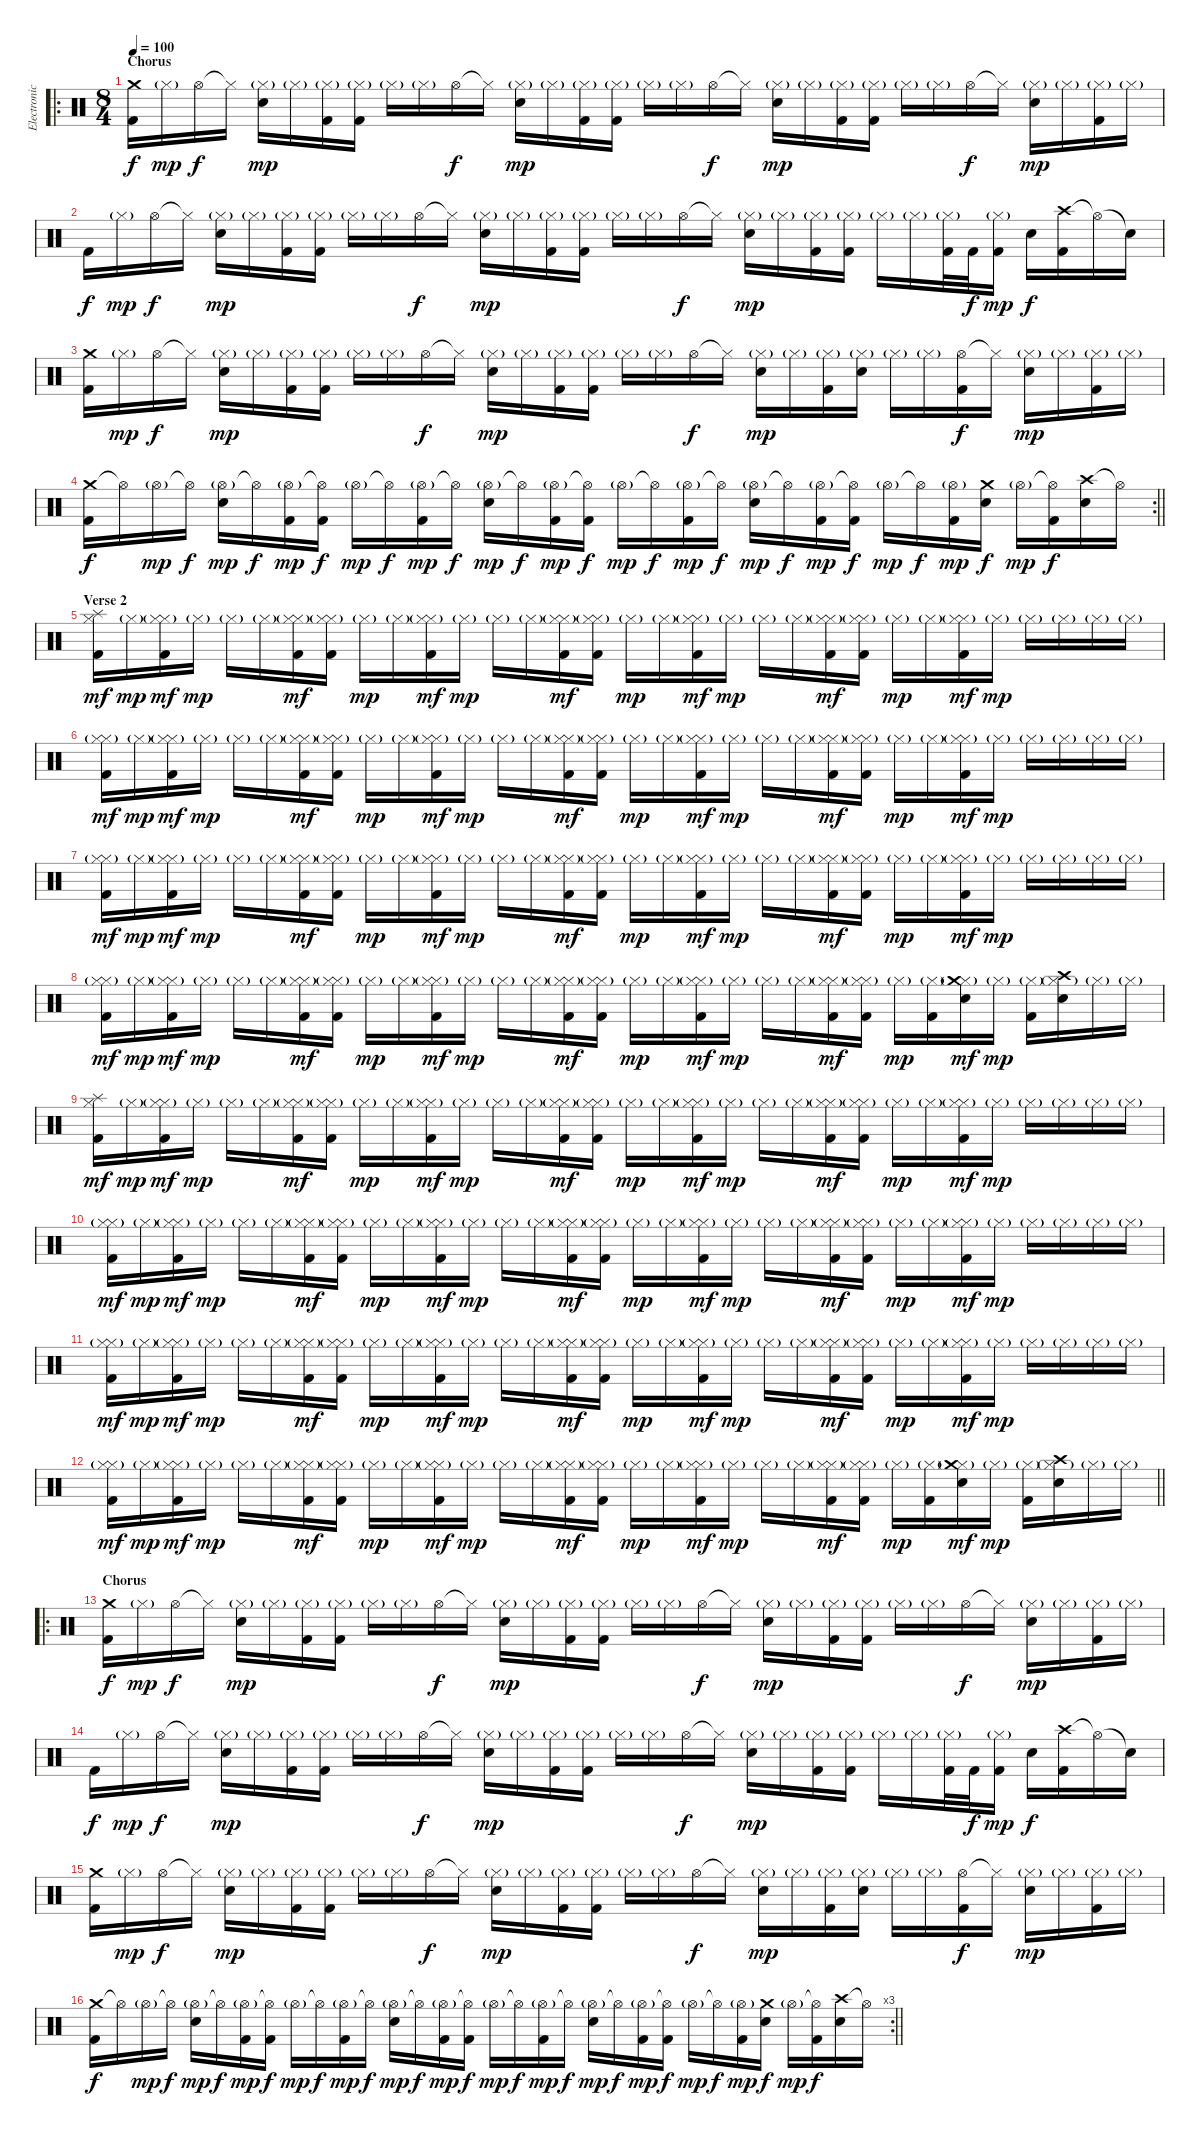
\track ("Electronic Drums" "Electronic") {instrument percussion}
\staff {score}
\articulation defaults
\ro
\ts (8 4)
\section ("" "Chorus")
\tempo 100
\clef neutral
\ks c
("Crash medium (hit)" "Kick (hit) 2").16{dy f} "Hi-Hat (closed)"{g}.16{dy mp} "Hi-Hat (open)".16{dy f} "Hi-Hat (closed)"{t}.16 ("Hi-Hat (closed)"{g} "Snare (hit) 2").16{dy mp} "Hi-Hat (closed)"{g}.16 ("Hi-Hat (closed)"{g} "Kick (hit) 2").16 ("Hi-Hat (closed)"{g} "Kick (hit) 2").16 "Hi-Hat (closed)"{g}.16 "Hi-Hat (closed)"{g}.16 "Hi-Hat (open)".16{dy f} "Hi-Hat (closed)"{t}.16 ("Hi-Hat (closed)"{g} "Snare (hit) 2").16{dy mp} "Hi-Hat (closed)"{g}.16 ("Hi-Hat (closed)"{g} "Kick (hit) 2").16 ("Hi-Hat (closed)"{g} "Kick (hit) 2").16 "Hi-Hat (closed)"{g}.16 "Hi-Hat (closed)"{g}.16 "Hi-Hat (open)".16{dy f} "Hi-Hat (closed)"{t}.16 ("Hi-Hat (closed)"{g} "Snare (hit) 2").16{dy mp} "Hi-Hat (closed)"{g}.16 ("Hi-Hat (closed)"{g} "Kick (hit) 2").16 ("Hi-Hat (closed)"{g} "Kick (hit) 2").16 "Hi-Hat (closed)"{g}.16 "Hi-Hat (closed)"{g}.16 "Hi-Hat (open)".16{dy f} "Hi-Hat (closed)"{t}.16 ("Hi-Hat (closed)"{g} "Snare (hit) 2").16{dy mp} "Hi-Hat (closed)"{g}.16 ("Hi-Hat (closed)"{g} "Kick (hit) 2").16 "Hi-Hat (closed)"{g}.16 |
"Kick (hit) 2".16{dy f} "Hi-Hat (closed)"{g}.16{dy mp} "Hi-Hat (open)".16{dy f} "Hi-Hat (closed)"{t}.16 ("Hi-Hat (closed)"{g} "Snare (hit) 2").16{dy mp} "Hi-Hat (closed)"{g}.16 ("Hi-Hat (closed)"{g} "Kick (hit) 2").16 ("Hi-Hat (closed)"{g} "Kick (hit) 2").16 "Hi-Hat (closed)"{g}.16 "Hi-Hat (closed)"{g}.16 "Hi-Hat (open)".16{dy f} "Hi-Hat (closed)"{t}.16 ("Hi-Hat (closed)"{g} "Snare (hit) 2").16{dy mp} "Hi-Hat (closed)"{g}.16 ("Hi-Hat (closed)"{g} "Kick (hit) 2").16 ("Hi-Hat (closed)"{g} "Kick (hit) 2").16 "Hi-Hat (closed)"{g}.16 "Hi-Hat (closed)"{g}.16 "Hi-Hat (open)".16{dy f} "Hi-Hat (closed)"{t}.16 ("Hi-Hat (closed)"{g} "Snare (hit) 2").16{dy mp} "Hi-Hat (closed)"{g}.16 ("Hi-Hat (closed)"{g} "Kick (hit) 2").16 ("Hi-Hat (closed)"{g} "Kick (hit) 2").16 "Hi-Hat (closed)"{g}.16 "Hi-Hat (closed)"{g}.16 ("Hi-Hat (closed)"{g} "Kick (hit) 2").32 "Kick (hit) 2".32{dy f} ("Hi-Hat (closed)"{g} "Kick (hit) 2").16{dy mp} "Snare (hit) 2".16{dy f} ("Crash high (hit)" "Kick (hit) 2").16 "Hi-Hat (open)"{t}.16 "Snare (hit)"{t}.16 |
("Crash medium (hit)" "Kick (hit) 2").16 "Hi-Hat (closed)"{g}.16{dy mp} "Hi-Hat (open)".16{dy f} "Hi-Hat (closed)"{t}.16 ("Hi-Hat (closed)"{g} "Snare (hit) 2").16{dy mp} "Hi-Hat (closed)"{g}.16 ("Hi-Hat (closed)"{g} "Kick (hit) 2").16 ("Hi-Hat (closed)"{g} "Kick (hit) 2").16 "Hi-Hat (closed)"{g}.16 "Hi-Hat (closed)"{g}.16 "Hi-Hat (open)".16{dy f} "Hi-Hat (closed)"{t}.16 ("Hi-Hat (closed)"{g} "Snare (hit) 2").16{dy mp} "Hi-Hat (closed)"{g}.16 ("Hi-Hat (closed)"{g} "Kick (hit) 2").16 ("Hi-Hat (closed)"{g} "Kick (hit) 2").16 "Hi-Hat (closed)"{g}.16 "Hi-Hat (closed)"{g}.16 "Hi-Hat (open)".16{dy f} "Hi-Hat (closed)"{t}.16 ("Hi-Hat (closed)"{g} "Snare (hit) 2").16{dy mp} "Hi-Hat (closed)"{g}.16 ("Hi-Hat (closed)"{g} "Kick (hit) 2").16 ("Hi-Hat (closed)"{g} "Snare (hit) 2").16 "Hi-Hat (closed)"{g}.16 "Hi-Hat (closed)"{g}.16 ("Hi-Hat (open)" "Kick (hit) 2").16{dy f} "Hi-Hat (closed)"{t}.16 ("Hi-Hat (closed)"{g} "Snare (hit) 2").16{dy mp} "Hi-Hat (closed)"{g}.16 ("Hi-Hat (closed)"{g} "Kick (hit) 2").16 "Hi-Hat (closed)"{g}.16 |
\rc 2
\barLineRight lightlight
("Crash medium (hit)" "Kick (hit) 2").16{dy f} "Hi-Hat (open)"{t}.16 "Hi-Hat (open)"{g}.16{dy mp} "Hi-Hat (open)"{t}.16{dy f} ("Hi-Hat (open)"{g} "Snare (hit) 2").16{dy mp} "Hi-Hat (open)"{t}.16{dy f} ("Hi-Hat (open)"{g} "Kick (hit) 2").16{dy mp} ("Hi-Hat (open)"{t} "Kick (hit) 2").16{dy f} "Hi-Hat (open)"{g}.16{dy mp} "Hi-Hat (open)"{t}.16{dy f} ("Hi-Hat (open)"{g} "Kick (hit) 2").16{dy mp} "Hi-Hat (open)"{t}.16{dy f} ("Hi-Hat (open)"{g} "Snare (hit) 2").16{dy mp} "Hi-Hat (open)"{t}.16{dy f} ("Hi-Hat (open)"{g} "Kick (hit) 2").16{dy mp} ("Hi-Hat (open)"{t} "Kick (hit) 2").16{dy f} "Hi-Hat (open)"{g}.16{dy mp} "Hi-Hat (open)"{t}.16{dy f} ("Hi-Hat (open)"{g} "Kick (hit) 2").16{dy mp} "Hi-Hat (open)"{t}.16{dy f} ("Hi-Hat (open)"{g} "Snare (hit) 2").16{dy mp} "Hi-Hat (open)"{t}.16{dy f} ("Hi-Hat (open)"{g} "Kick (hit) 2").16{dy mp} ("Hi-Hat (open)"{t} "Kick (hit) 2").16{dy f} "Hi-Hat (open)"{g}.16{dy mp} "Hi-Hat (open)"{t}.16{dy f} ("Hi-Hat (open)"{g} "Kick (hit) 2").16{dy mp} ("Crash medium (hit)" "Snare (hit) 2").16{dy f} "Hi-Hat (open)"{g}.16{dy mp} ("Hi-Hat (open)"{t} "Kick (hit) 2").16{dy f} ("Crash high (hit)" "Snare (hit) 2").16 "Hi-Hat (open)"{t}.16 |
\section ("" "Verse 2")
("Splash (hit)" "Hi-Hat (closed)" "Kick (hit) 2").16{dy mf} "Hi-Hat (closed)"{g}.16{dy mp} ("Hi-Hat (closed)"{g} "Hi-Hat (closed)" "Kick (hit) 2").16{dy mf} "Hi-Hat (closed)"{g}.16{dy mp} "Hi-Hat (closed)"{g}.16 "Hi-Hat (closed)"{g}.16 ("Hi-Hat (closed)"{g} "Hi-Hat (closed)" "Kick (hit) 2").16{dy mf} ("Hi-Hat (closed)"{g} "Hi-Hat (closed)" "Kick (hit) 2").16 "Hi-Hat (closed)"{g}.16{dy mp} "Hi-Hat (closed)"{g}.16 ("Hi-Hat (closed)"{g} "Hi-Hat (closed)" "Kick (hit) 2").16{dy mf} "Hi-Hat (closed)"{g}.16{dy mp} "Hi-Hat (closed)"{g}.16 "Hi-Hat (closed)"{g}.16 ("Hi-Hat (closed)"{g} "Hi-Hat (closed)" "Kick (hit) 2").16{dy mf} ("Hi-Hat (closed)"{g} "Hi-Hat (closed)" "Kick (hit) 2").16 "Hi-Hat (closed)"{g}.16{dy mp} "Hi-Hat (closed)"{g}.16 ("Hi-Hat (closed)"{g} "Hi-Hat (closed)" "Kick (hit) 2").16{dy mf} "Hi-Hat (closed)"{g}.16{dy mp} "Hi-Hat (closed)"{g}.16 "Hi-Hat (closed)"{g}.16 ("Hi-Hat (closed)"{g} "Hi-Hat (closed)" "Kick (hit) 2").16{dy mf} ("Hi-Hat (closed)"{g} "Hi-Hat (closed)" "Kick (hit) 2").16 "Hi-Hat (closed)"{g}.16{dy mp} "Hi-Hat (closed)"{g}.16 ("Hi-Hat (closed)"{g} "Hi-Hat (closed)" "Kick (hit) 2").16{dy mf} "Hi-Hat (closed)"{g}.16{dy mp} "Hi-Hat (closed)"{g}.16 "Hi-Hat (closed)"{g}.16 "Hi-Hat (closed)"{g}.16 "Hi-Hat (closed)"{g}.16 |
("Hi-Hat (closed)"{g} "Hi-Hat (closed)" "Kick (hit) 2").16{dy mf} "Hi-Hat (closed)"{g}.16{dy mp} ("Hi-Hat (closed)"{g} "Hi-Hat (closed)" "Kick (hit) 2").16{dy mf} "Hi-Hat (closed)"{g}.16{dy mp} "Hi-Hat (closed)"{g}.16 "Hi-Hat (closed)"{g}.16 ("Hi-Hat (closed)"{g} "Hi-Hat (closed)" "Kick (hit) 2").16{dy mf} ("Hi-Hat (closed)"{g} "Hi-Hat (closed)" "Kick (hit) 2").16 "Hi-Hat (closed)"{g}.16{dy mp} "Hi-Hat (closed)"{g}.16 ("Hi-Hat (closed)"{g} "Hi-Hat (closed)" "Kick (hit) 2").16{dy mf} "Hi-Hat (closed)"{g}.16{dy mp} "Hi-Hat (closed)"{g}.16 "Hi-Hat (closed)"{g}.16 ("Hi-Hat (closed)"{g} "Hi-Hat (closed)" "Kick (hit) 2").16{dy mf} ("Hi-Hat (closed)"{g} "Hi-Hat (closed)" "Kick (hit) 2").16 "Hi-Hat (closed)"{g}.16{dy mp} "Hi-Hat (closed)"{g}.16 ("Hi-Hat (closed)"{g} "Hi-Hat (closed)" "Kick (hit) 2").16{dy mf} "Hi-Hat (closed)"{g}.16{dy mp} "Hi-Hat (closed)"{g}.16 "Hi-Hat (closed)"{g}.16 ("Hi-Hat (closed)"{g} "Hi-Hat (closed)" "Kick (hit) 2").16{dy mf} ("Hi-Hat (closed)"{g} "Hi-Hat (closed)" "Kick (hit) 2").16 "Hi-Hat (closed)"{g}.16{dy mp} "Hi-Hat (closed)"{g}.16 ("Hi-Hat (closed)"{g} "Hi-Hat (closed)" "Kick (hit) 2").16{dy mf} "Hi-Hat (closed)"{g}.16{dy mp} "Hi-Hat (closed)"{g}.16 "Hi-Hat (closed)"{g}.16 "Hi-Hat (closed)"{g}.16 "Hi-Hat (closed)"{g}.16 |
("Hi-Hat (closed)"{g} "Hi-Hat (closed)" "Kick (hit) 2").16{dy mf} "Hi-Hat (closed)"{g}.16{dy mp} ("Hi-Hat (closed)"{g} "Hi-Hat (closed)" "Kick (hit) 2").16{dy mf} "Hi-Hat (closed)"{g}.16{dy mp} "Hi-Hat (closed)"{g}.16 "Hi-Hat (closed)"{g}.16 ("Hi-Hat (closed)"{g} "Hi-Hat (closed)" "Kick (hit) 2").16{dy mf} ("Hi-Hat (closed)"{g} "Hi-Hat (closed)" "Kick (hit) 2").16 "Hi-Hat (closed)"{g}.16{dy mp} "Hi-Hat (closed)"{g}.16 ("Hi-Hat (closed)"{g} "Hi-Hat (closed)" "Kick (hit) 2").16{dy mf} "Hi-Hat (closed)"{g}.16{dy mp} "Hi-Hat (closed)"{g}.16 "Hi-Hat (closed)"{g}.16 ("Hi-Hat (closed)"{g} "Hi-Hat (closed)" "Kick (hit) 2").16{dy mf} ("Hi-Hat (closed)"{g} "Hi-Hat (closed)" "Kick (hit) 2").16 "Hi-Hat (closed)"{g}.16{dy mp} "Hi-Hat (closed)"{g}.16 ("Hi-Hat (closed)"{g} "Hi-Hat (closed)" "Kick (hit) 2").16{dy mf} "Hi-Hat (closed)"{g}.16{dy mp} "Hi-Hat (closed)"{g}.16 "Hi-Hat (closed)"{g}.16 ("Hi-Hat (closed)"{g} "Hi-Hat (closed)" "Kick (hit) 2").16{dy mf} ("Hi-Hat (closed)"{g} "Hi-Hat (closed)" "Kick (hit) 2").16 "Hi-Hat (closed)"{g}.16{dy mp} "Hi-Hat (closed)"{g}.16 ("Hi-Hat (closed)"{g} "Hi-Hat (closed)" "Kick (hit) 2").16{dy mf} "Hi-Hat (closed)"{g}.16{dy mp} "Hi-Hat (closed)"{g}.16 "Hi-Hat (closed)"{g}.16 "Hi-Hat (closed)"{g}.16 "Hi-Hat (closed)"{g}.16 |
("Hi-Hat (closed)"{g} "Hi-Hat (closed)" "Kick (hit) 2").16{dy mf} "Hi-Hat (closed)"{g}.16{dy mp} ("Hi-Hat (closed)"{g} "Hi-Hat (closed)" "Kick (hit) 2").16{dy mf} "Hi-Hat (closed)"{g}.16{dy mp} "Hi-Hat (closed)"{g}.16 "Hi-Hat (closed)"{g}.16 ("Hi-Hat (closed)"{g} "Hi-Hat (closed)" "Kick (hit) 2").16{dy mf} ("Hi-Hat (closed)"{g} "Hi-Hat (closed)" "Kick (hit) 2").16 "Hi-Hat (closed)"{g}.16{dy mp} "Hi-Hat (closed)"{g}.16 ("Hi-Hat (closed)"{g} "Hi-Hat (closed)" "Kick (hit) 2").16{dy mf} "Hi-Hat (closed)"{g}.16{dy mp} "Hi-Hat (closed)"{g}.16 "Hi-Hat (closed)"{g}.16 ("Hi-Hat (closed)"{g} "Hi-Hat (closed)" "Kick (hit) 2").16{dy mf} ("Hi-Hat (closed)"{g} "Hi-Hat (closed)" "Kick (hit) 2").16 "Hi-Hat (closed)"{g}.16{dy mp} "Hi-Hat (closed)"{g}.16 ("Hi-Hat (closed)"{g} "Hi-Hat (closed)" "Kick (hit) 2").16{dy mf} "Hi-Hat (closed)"{g}.16{dy mp} "Hi-Hat (closed)"{g}.16 "Hi-Hat (closed)"{g}.16 ("Hi-Hat (closed)"{g} "Hi-Hat (closed)" "Kick (hit) 2").16{dy mf} ("Hi-Hat (closed)"{g} "Hi-Hat (closed)" "Kick (hit) 2").16 "Hi-Hat (closed)"{g}.16{dy mp} ("Hi-Hat (closed)"{g} "Kick (hit) 2").16 ("Hi-Hat (closed)"{g} "Snare (hit) 2" "Crash medium (hit)").16{dy mf} "Hi-Hat (closed)"{g}.16{dy mp} ("Hi-Hat (closed)"{g} "Kick (hit) 2").16 ("Hi-Hat (closed)"{g} "Snare (hit) 2" "Crash high (hit)").16 "Hi-Hat (closed)"{g}.16 "Hi-Hat (closed)"{g}.16 |
("Splash (hit)" "Hi-Hat (closed)" "Kick (hit) 2").16{dy mf} "Hi-Hat (closed)"{g}.16{dy mp} ("Hi-Hat (closed)"{g} "Hi-Hat (closed)" "Kick (hit) 2").16{dy mf} "Hi-Hat (closed)"{g}.16{dy mp} "Hi-Hat (closed)"{g}.16 "Hi-Hat (closed)"{g}.16 ("Hi-Hat (closed)"{g} "Hi-Hat (closed)" "Kick (hit) 2").16{dy mf} ("Hi-Hat (closed)"{g} "Hi-Hat (closed)" "Kick (hit) 2").16 "Hi-Hat (closed)"{g}.16{dy mp} "Hi-Hat (closed)"{g}.16 ("Hi-Hat (closed)"{g} "Hi-Hat (closed)" "Kick (hit) 2").16{dy mf} "Hi-Hat (closed)"{g}.16{dy mp} "Hi-Hat (closed)"{g}.16 "Hi-Hat (closed)"{g}.16 ("Hi-Hat (closed)"{g} "Hi-Hat (closed)" "Kick (hit) 2").16{dy mf} ("Hi-Hat (closed)"{g} "Hi-Hat (closed)" "Kick (hit) 2").16 "Hi-Hat (closed)"{g}.16{dy mp} "Hi-Hat (closed)"{g}.16 ("Hi-Hat (closed)"{g} "Hi-Hat (closed)" "Kick (hit) 2").16{dy mf} "Hi-Hat (closed)"{g}.16{dy mp} "Hi-Hat (closed)"{g}.16 "Hi-Hat (closed)"{g}.16 ("Hi-Hat (closed)"{g} "Hi-Hat (closed)" "Kick (hit) 2").16{dy mf} ("Hi-Hat (closed)"{g} "Hi-Hat (closed)" "Kick (hit) 2").16 "Hi-Hat (closed)"{g}.16{dy mp} "Hi-Hat (closed)"{g}.16 ("Hi-Hat (closed)"{g} "Hi-Hat (closed)" "Kick (hit) 2").16{dy mf} "Hi-Hat (closed)"{g}.16{dy mp} "Hi-Hat (closed)"{g}.16 "Hi-Hat (closed)"{g}.16 "Hi-Hat (closed)"{g}.16 "Hi-Hat (closed)"{g}.16 |
("Hi-Hat (closed)"{g} "Hi-Hat (closed)" "Kick (hit) 2").16{dy mf} "Hi-Hat (closed)"{g}.16{dy mp} ("Hi-Hat (closed)"{g} "Hi-Hat (closed)" "Kick (hit) 2").16{dy mf} "Hi-Hat (closed)"{g}.16{dy mp} "Hi-Hat (closed)"{g}.16 "Hi-Hat (closed)"{g}.16 ("Hi-Hat (closed)"{g} "Hi-Hat (closed)" "Kick (hit) 2").16{dy mf} ("Hi-Hat (closed)"{g} "Hi-Hat (closed)" "Kick (hit) 2").16 "Hi-Hat (closed)"{g}.16{dy mp} "Hi-Hat (closed)"{g}.16 ("Hi-Hat (closed)"{g} "Hi-Hat (closed)" "Kick (hit) 2").16{dy mf} "Hi-Hat (closed)"{g}.16{dy mp} "Hi-Hat (closed)"{g}.16 "Hi-Hat (closed)"{g}.16 ("Hi-Hat (closed)"{g} "Hi-Hat (closed)" "Kick (hit) 2").16{dy mf} ("Hi-Hat (closed)"{g} "Hi-Hat (closed)" "Kick (hit) 2").16 "Hi-Hat (closed)"{g}.16{dy mp} "Hi-Hat (closed)"{g}.16 ("Hi-Hat (closed)"{g} "Hi-Hat (closed)" "Kick (hit) 2").16{dy mf} "Hi-Hat (closed)"{g}.16{dy mp} "Hi-Hat (closed)"{g}.16 "Hi-Hat (closed)"{g}.16 ("Hi-Hat (closed)"{g} "Hi-Hat (closed)" "Kick (hit) 2").16{dy mf} ("Hi-Hat (closed)"{g} "Hi-Hat (closed)" "Kick (hit) 2").16 "Hi-Hat (closed)"{g}.16{dy mp} "Hi-Hat (closed)"{g}.16 ("Hi-Hat (closed)"{g} "Hi-Hat (closed)" "Kick (hit) 2").16{dy mf} "Hi-Hat (closed)"{g}.16{dy mp} "Hi-Hat (closed)"{g}.16 "Hi-Hat (closed)"{g}.16 "Hi-Hat (closed)"{g}.16 "Hi-Hat (closed)"{g}.16 |
("Hi-Hat (closed)"{g} "Hi-Hat (closed)" "Kick (hit) 2").16{dy mf} "Hi-Hat (closed)"{g}.16{dy mp} ("Hi-Hat (closed)"{g} "Hi-Hat (closed)" "Kick (hit) 2").16{dy mf} "Hi-Hat (closed)"{g}.16{dy mp} "Hi-Hat (closed)"{g}.16 "Hi-Hat (closed)"{g}.16 ("Hi-Hat (closed)"{g} "Hi-Hat (closed)" "Kick (hit) 2").16{dy mf} ("Hi-Hat (closed)"{g} "Hi-Hat (closed)" "Kick (hit) 2").16 "Hi-Hat (closed)"{g}.16{dy mp} "Hi-Hat (closed)"{g}.16 ("Hi-Hat (closed)"{g} "Hi-Hat (closed)" "Kick (hit) 2").16{dy mf} "Hi-Hat (closed)"{g}.16{dy mp} "Hi-Hat (closed)"{g}.16 "Hi-Hat (closed)"{g}.16 ("Hi-Hat (closed)"{g} "Hi-Hat (closed)" "Kick (hit) 2").16{dy mf} ("Hi-Hat (closed)"{g} "Hi-Hat (closed)" "Kick (hit) 2").16 "Hi-Hat (closed)"{g}.16{dy mp} "Hi-Hat (closed)"{g}.16 ("Hi-Hat (closed)"{g} "Hi-Hat (closed)" "Kick (hit) 2").16{dy mf} "Hi-Hat (closed)"{g}.16{dy mp} "Hi-Hat (closed)"{g}.16 "Hi-Hat (closed)"{g}.16 ("Hi-Hat (closed)"{g} "Hi-Hat (closed)" "Kick (hit) 2").16{dy mf} ("Hi-Hat (closed)"{g} "Hi-Hat (closed)" "Kick (hit) 2").16 "Hi-Hat (closed)"{g}.16{dy mp} "Hi-Hat (closed)"{g}.16 ("Hi-Hat (closed)"{g} "Hi-Hat (closed)" "Kick (hit) 2").16{dy mf} "Hi-Hat (closed)"{g}.16{dy mp} "Hi-Hat (closed)"{g}.16 "Hi-Hat (closed)"{g}.16 "Hi-Hat (closed)"{g}.16 "Hi-Hat (closed)"{g}.16 |
\barLineRight lightlight
("Hi-Hat (closed)"{g} "Hi-Hat (closed)" "Kick (hit) 2").16{dy mf} "Hi-Hat (closed)"{g}.16{dy mp} ("Hi-Hat (closed)"{g} "Hi-Hat (closed)" "Kick (hit) 2").16{dy mf} "Hi-Hat (closed)"{g}.16{dy mp} "Hi-Hat (closed)"{g}.16 "Hi-Hat (closed)"{g}.16 ("Hi-Hat (closed)"{g} "Hi-Hat (closed)" "Kick (hit) 2").16{dy mf} ("Hi-Hat (closed)"{g} "Hi-Hat (closed)" "Kick (hit) 2").16 "Hi-Hat (closed)"{g}.16{dy mp} "Hi-Hat (closed)"{g}.16 ("Hi-Hat (closed)"{g} "Hi-Hat (closed)" "Kick (hit) 2").16{dy mf} "Hi-Hat (closed)"{g}.16{dy mp} "Hi-Hat (closed)"{g}.16 "Hi-Hat (closed)"{g}.16 ("Hi-Hat (closed)"{g} "Hi-Hat (closed)" "Kick (hit) 2").16{dy mf} ("Hi-Hat (closed)"{g} "Hi-Hat (closed)" "Kick (hit) 2").16 "Hi-Hat (closed)"{g}.16{dy mp} "Hi-Hat (closed)"{g}.16 ("Hi-Hat (closed)"{g} "Hi-Hat (closed)" "Kick (hit) 2").16{dy mf} "Hi-Hat (closed)"{g}.16{dy mp} "Hi-Hat (closed)"{g}.16 "Hi-Hat (closed)"{g}.16 ("Hi-Hat (closed)"{g} "Hi-Hat (closed)" "Kick (hit) 2").16{dy mf} ("Hi-Hat (closed)"{g} "Hi-Hat (closed)" "Kick (hit) 2").16 "Hi-Hat (closed)"{g}.16{dy mp} ("Hi-Hat (closed)"{g} "Kick (hit) 2").16 ("Hi-Hat (closed)"{g} "Snare (hit) 2" "Crash medium (hit)").16{dy mf} "Hi-Hat (closed)"{g}.16{dy mp} ("Hi-Hat (closed)"{g} "Kick (hit) 2").16 ("Hi-Hat (closed)"{g} "Snare (hit) 2" "Crash high (hit)").16 "Hi-Hat (closed)"{g}.16 "Hi-Hat (closed)"{g}.16 |
\ro
\section ("" "Chorus")
("Crash medium (hit)" "Kick (hit) 2").16{dy f} "Hi-Hat (closed)"{g}.16{dy mp} "Hi-Hat (open)".16{dy f} "Hi-Hat (closed)"{t}.16 ("Hi-Hat (closed)"{g} "Snare (hit) 2").16{dy mp} "Hi-Hat (closed)"{g}.16 ("Hi-Hat (closed)"{g} "Kick (hit) 2").16 ("Hi-Hat (closed)"{g} "Kick (hit) 2").16 "Hi-Hat (closed)"{g}.16 "Hi-Hat (closed)"{g}.16 "Hi-Hat (open)".16{dy f} "Hi-Hat (closed)"{t}.16 ("Hi-Hat (closed)"{g} "Snare (hit) 2").16{dy mp} "Hi-Hat (closed)"{g}.16 ("Hi-Hat (closed)"{g} "Kick (hit) 2").16 ("Hi-Hat (closed)"{g} "Kick (hit) 2").16 "Hi-Hat (closed)"{g}.16 "Hi-Hat (closed)"{g}.16 "Hi-Hat (open)".16{dy f} "Hi-Hat (closed)"{t}.16 ("Hi-Hat (closed)"{g} "Snare (hit) 2").16{dy mp} "Hi-Hat (closed)"{g}.16 ("Hi-Hat (closed)"{g} "Kick (hit) 2").16 ("Hi-Hat (closed)"{g} "Kick (hit) 2").16 "Hi-Hat (closed)"{g}.16 "Hi-Hat (closed)"{g}.16 "Hi-Hat (open)".16{dy f} "Hi-Hat (closed)"{t}.16 ("Hi-Hat (closed)"{g} "Snare (hit) 2").16{dy mp} "Hi-Hat (closed)"{g}.16 ("Hi-Hat (closed)"{g} "Kick (hit) 2").16 "Hi-Hat (closed)"{g}.16 |
"Kick (hit) 2".16{dy f} "Hi-Hat (closed)"{g}.16{dy mp} "Hi-Hat (open)".16{dy f} "Hi-Hat (closed)"{t}.16 ("Hi-Hat (closed)"{g} "Snare (hit) 2").16{dy mp} "Hi-Hat (closed)"{g}.16 ("Hi-Hat (closed)"{g} "Kick (hit) 2").16 ("Hi-Hat (closed)"{g} "Kick (hit) 2").16 "Hi-Hat (closed)"{g}.16 "Hi-Hat (closed)"{g}.16 "Hi-Hat (open)".16{dy f} "Hi-Hat (closed)"{t}.16 ("Hi-Hat (closed)"{g} "Snare (hit) 2").16{dy mp} "Hi-Hat (closed)"{g}.16 ("Hi-Hat (closed)"{g} "Kick (hit) 2").16 ("Hi-Hat (closed)"{g} "Kick (hit) 2").16 "Hi-Hat (closed)"{g}.16 "Hi-Hat (closed)"{g}.16 "Hi-Hat (open)".16{dy f} "Hi-Hat (closed)"{t}.16 ("Hi-Hat (closed)"{g} "Snare (hit) 2").16{dy mp} "Hi-Hat (closed)"{g}.16 ("Hi-Hat (closed)"{g} "Kick (hit) 2").16 ("Hi-Hat (closed)"{g} "Kick (hit) 2").16 "Hi-Hat (closed)"{g}.16 "Hi-Hat (closed)"{g}.16 ("Hi-Hat (closed)"{g} "Kick (hit) 2").32 "Kick (hit) 2".32{dy f} ("Hi-Hat (closed)"{g} "Kick (hit) 2").16{dy mp} "Snare (hit) 2".16{dy f} ("Crash high (hit)" "Kick (hit) 2").16 "Hi-Hat (open)"{t}.16 "Snare (hit)"{t}.16 |
("Crash medium (hit)" "Kick (hit) 2").16 "Hi-Hat (closed)"{g}.16{dy mp} "Hi-Hat (open)".16{dy f} "Hi-Hat (closed)"{t}.16 ("Hi-Hat (closed)"{g} "Snare (hit) 2").16{dy mp} "Hi-Hat (closed)"{g}.16 ("Hi-Hat (closed)"{g} "Kick (hit) 2").16 ("Hi-Hat (closed)"{g} "Kick (hit) 2").16 "Hi-Hat (closed)"{g}.16 "Hi-Hat (closed)"{g}.16 "Hi-Hat (open)".16{dy f} "Hi-Hat (closed)"{t}.16 ("Hi-Hat (closed)"{g} "Snare (hit) 2").16{dy mp} "Hi-Hat (closed)"{g}.16 ("Hi-Hat (closed)"{g} "Kick (hit) 2").16 ("Hi-Hat (closed)"{g} "Kick (hit) 2").16 "Hi-Hat (closed)"{g}.16 "Hi-Hat (closed)"{g}.16 "Hi-Hat (open)".16{dy f} "Hi-Hat (closed)"{t}.16 ("Hi-Hat (closed)"{g} "Snare (hit) 2").16{dy mp} "Hi-Hat (closed)"{g}.16 ("Hi-Hat (closed)"{g} "Kick (hit) 2").16 ("Hi-Hat (closed)"{g} "Snare (hit) 2").16 "Hi-Hat (closed)"{g}.16 "Hi-Hat (closed)"{g}.16 ("Hi-Hat (open)" "Kick (hit) 2").16{dy f} "Hi-Hat (closed)"{t}.16 ("Hi-Hat (closed)"{g} "Snare (hit) 2").16{dy mp} "Hi-Hat (closed)"{g}.16 ("Hi-Hat (closed)"{g} "Kick (hit) 2").16 "Hi-Hat (closed)"{g}.16 |
\rc 3
\barLineRight lightlight
("Crash medium (hit)" "Kick (hit) 2").16{dy f} "Hi-Hat (open)"{t}.16 "Hi-Hat (open)"{g}.16{dy mp} "Hi-Hat (open)"{t}.16{dy f} ("Hi-Hat (open)"{g} "Snare (hit) 2").16{dy mp} "Hi-Hat (open)"{t}.16{dy f} ("Hi-Hat (open)"{g} "Kick (hit) 2").16{dy mp} ("Hi-Hat (open)"{t} "Kick (hit) 2").16{dy f} "Hi-Hat (open)"{g}.16{dy mp} "Hi-Hat (open)"{t}.16{dy f} ("Hi-Hat (open)"{g} "Kick (hit) 2").16{dy mp} "Hi-Hat (open)"{t}.16{dy f} ("Hi-Hat (open)"{g} "Snare (hit) 2").16{dy mp} "Hi-Hat (open)"{t}.16{dy f} ("Hi-Hat (open)"{g} "Kick (hit) 2").16{dy mp} ("Hi-Hat (open)"{t} "Kick (hit) 2").16{dy f} "Hi-Hat (open)"{g}.16{dy mp} "Hi-Hat (open)"{t}.16{dy f} ("Hi-Hat (open)"{g} "Kick (hit) 2").16{dy mp} "Hi-Hat (open)"{t}.16{dy f} ("Hi-Hat (open)"{g} "Snare (hit) 2").16{dy mp} "Hi-Hat (open)"{t}.16{dy f} ("Hi-Hat (open)"{g} "Kick (hit) 2").16{dy mp} ("Hi-Hat (open)"{t} "Kick (hit) 2").16{dy f} "Hi-Hat (open)"{g}.16{dy mp} "Hi-Hat (open)"{t}.16{dy f} ("Hi-Hat (open)"{g} "Kick (hit) 2").16{dy mp} ("Crash medium (hit)" "Snare (hit) 2").16{dy f} "Hi-Hat (open)"{g}.16{dy mp} ("Hi-Hat (open)"{t} "Kick (hit) 2").16{dy f} ("Crash high (hit)" "Snare (hit) 2").16 "Hi-Hat (open)"{t}.16
